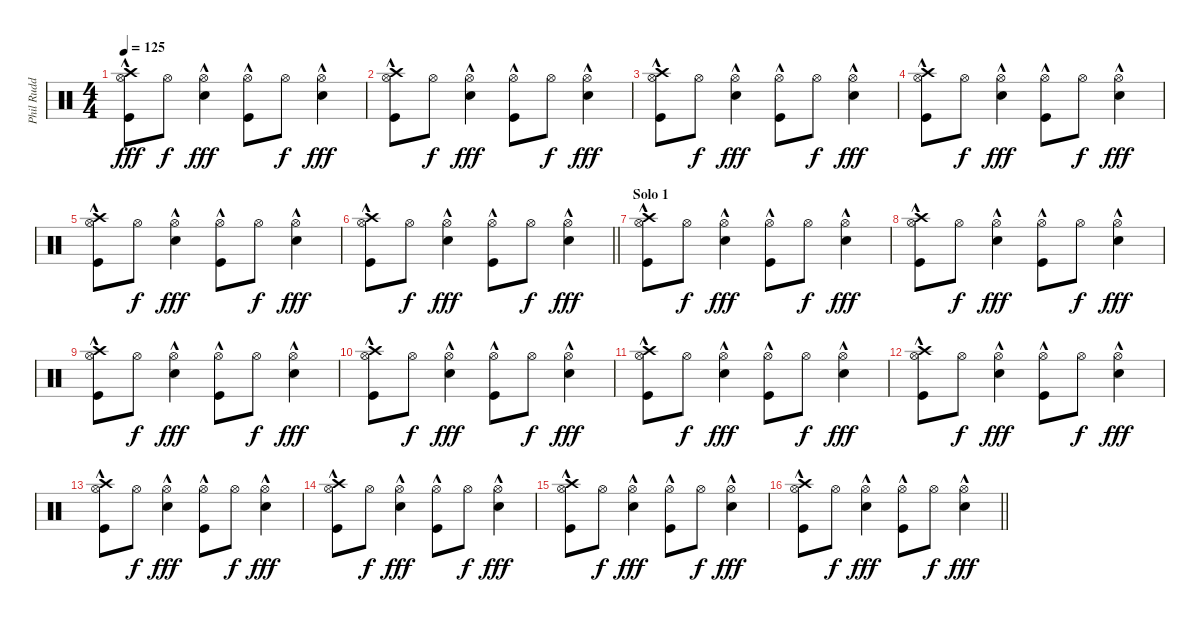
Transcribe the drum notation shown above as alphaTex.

\track ("Phil Rudd" "Phil Rudd") {instrument percussion}
\staff {score}
\articulation defaults
\ts (4 4)
\tempo 125
\clef neutral
\ks c
("Hi-Hat (open)" "Crash high (hit)" "Kick (hit)"{hac}).8{dy fff} "Hi-Hat (open)".8{dy f} ("Snare (hit) 2"{hac} "Hi-Hat (open)").4{dy fff} ("Hi-Hat (open)" "Kick (hit)"{hac}).8 "Hi-Hat (open)".8{dy f} ("Snare (hit) 2"{hac} "Hi-Hat (open)").4{dy fff} |
("Hi-Hat (open)" "Crash high (hit)" "Kick (hit)"{hac}).8 "Hi-Hat (open)".8{dy f} ("Snare (hit) 2"{hac} "Hi-Hat (open)").4{dy fff} ("Hi-Hat (open)" "Kick (hit)"{hac}).8 "Hi-Hat (open)".8{dy f} ("Snare (hit) 2"{hac} "Hi-Hat (open)").4{dy fff} |
("Hi-Hat (open)" "Crash high (hit)" "Kick (hit)"{hac}).8 "Hi-Hat (open)".8{dy f} ("Snare (hit) 2"{hac} "Hi-Hat (open)").4{dy fff} ("Hi-Hat (open)" "Kick (hit)"{hac}).8 "Hi-Hat (open)".8{dy f} ("Snare (hit) 2"{hac} "Hi-Hat (open)").4{dy fff} |
("Hi-Hat (open)" "Crash high (hit)" "Kick (hit)"{hac}).8 "Hi-Hat (open)".8{dy f} ("Snare (hit) 2"{hac} "Hi-Hat (open)").4{dy fff} ("Hi-Hat (open)" "Kick (hit)"{hac}).8 "Hi-Hat (open)".8{dy f} ("Snare (hit) 2"{hac} "Hi-Hat (open)").4{dy fff} |
("Hi-Hat (open)" "Crash high (hit)" "Kick (hit)"{hac}).8 "Hi-Hat (open)".8{dy f} ("Snare (hit) 2"{hac} "Hi-Hat (open)").4{dy fff} ("Hi-Hat (open)" "Kick (hit)"{hac}).8 "Hi-Hat (open)".8{dy f} ("Snare (hit) 2"{hac} "Hi-Hat (open)").4{dy fff} |
\barLineRight lightlight
("Hi-Hat (open)" "Crash high (hit)" "Kick (hit)"{hac}).8 "Hi-Hat (open)".8{dy f} ("Snare (hit) 2"{hac} "Hi-Hat (open)").4{dy fff} ("Hi-Hat (open)" "Kick (hit)"{hac}).8 "Hi-Hat (open)".8{dy f} ("Snare (hit) 2"{hac} "Hi-Hat (open)").4{dy fff} |
\section ("" "Solo 1")
("Hi-Hat (open)" "Crash high (hit)" "Kick (hit)"{hac}).8 "Hi-Hat (open)".8{dy f} ("Snare (hit) 2"{hac} "Hi-Hat (open)").4{dy fff} ("Hi-Hat (open)" "Kick (hit)"{hac}).8 "Hi-Hat (open)".8{dy f} ("Snare (hit) 2"{hac} "Hi-Hat (open)").4{dy fff} |
("Hi-Hat (open)" "Crash high (hit)" "Kick (hit)"{hac}).8 "Hi-Hat (open)".8{dy f} ("Snare (hit) 2"{hac} "Hi-Hat (open)").4{dy fff} ("Hi-Hat (open)" "Kick (hit)"{hac}).8 "Hi-Hat (open)".8{dy f} ("Snare (hit) 2"{hac} "Hi-Hat (open)").4{dy fff} |
("Hi-Hat (open)" "Crash high (hit)" "Kick (hit)"{hac}).8 "Hi-Hat (open)".8{dy f} ("Snare (hit) 2"{hac} "Hi-Hat (open)").4{dy fff} ("Hi-Hat (open)" "Kick (hit)"{hac}).8 "Hi-Hat (open)".8{dy f} ("Snare (hit) 2"{hac} "Hi-Hat (open)").4{dy fff} |
("Hi-Hat (open)" "Crash high (hit)" "Kick (hit)"{hac}).8 "Hi-Hat (open)".8{dy f} ("Snare (hit) 2"{hac} "Hi-Hat (open)").4{dy fff} ("Hi-Hat (open)" "Kick (hit)"{hac}).8 "Hi-Hat (open)".8{dy f} ("Snare (hit) 2"{hac} "Hi-Hat (open)").4{dy fff} |
("Hi-Hat (open)" "Crash high (hit)" "Kick (hit)"{hac}).8 "Hi-Hat (open)".8{dy f} ("Snare (hit) 2"{hac} "Hi-Hat (open)").4{dy fff} ("Hi-Hat (open)" "Kick (hit)"{hac}).8 "Hi-Hat (open)".8{dy f} ("Snare (hit) 2"{hac} "Hi-Hat (open)").4{dy fff} |
("Hi-Hat (open)" "Crash high (hit)" "Kick (hit)"{hac}).8 "Hi-Hat (open)".8{dy f} ("Snare (hit) 2"{hac} "Hi-Hat (open)").4{dy fff} ("Hi-Hat (open)" "Kick (hit)"{hac}).8 "Hi-Hat (open)".8{dy f} ("Snare (hit) 2"{hac} "Hi-Hat (open)").4{dy fff} |
("Hi-Hat (open)" "Crash high (hit)" "Kick (hit)"{hac}).8 "Hi-Hat (open)".8{dy f} ("Snare (hit) 2"{hac} "Hi-Hat (open)").4{dy fff} ("Hi-Hat (open)" "Kick (hit)"{hac}).8 "Hi-Hat (open)".8{dy f} ("Snare (hit) 2"{hac} "Hi-Hat (open)").4{dy fff} |
("Hi-Hat (open)" "Crash high (hit)" "Kick (hit)"{hac}).8 "Hi-Hat (open)".8{dy f} ("Snare (hit) 2"{hac} "Hi-Hat (open)").4{dy fff} ("Hi-Hat (open)" "Kick (hit)"{hac}).8 "Hi-Hat (open)".8{dy f} ("Snare (hit) 2"{hac} "Hi-Hat (open)").4{dy fff} |
("Hi-Hat (open)" "Crash high (hit)" "Kick (hit)"{hac}).8 "Hi-Hat (open)".8{dy f} ("Snare (hit) 2"{hac} "Hi-Hat (open)").4{dy fff} ("Hi-Hat (open)" "Kick (hit)"{hac}).8 "Hi-Hat (open)".8{dy f} ("Snare (hit) 2"{hac} "Hi-Hat (open)").4{dy fff} |
\barLineRight lightlight
("Hi-Hat (open)" "Crash high (hit)" "Kick (hit)"{hac}).8 "Hi-Hat (open)".8{dy f} ("Snare (hit) 2"{hac} "Hi-Hat (open)").4{dy fff} ("Hi-Hat (open)" "Kick (hit)"{hac}).8 "Hi-Hat (open)".8{dy f} ("Snare (hit) 2"{hac} "Hi-Hat (open)").4{dy fff}
